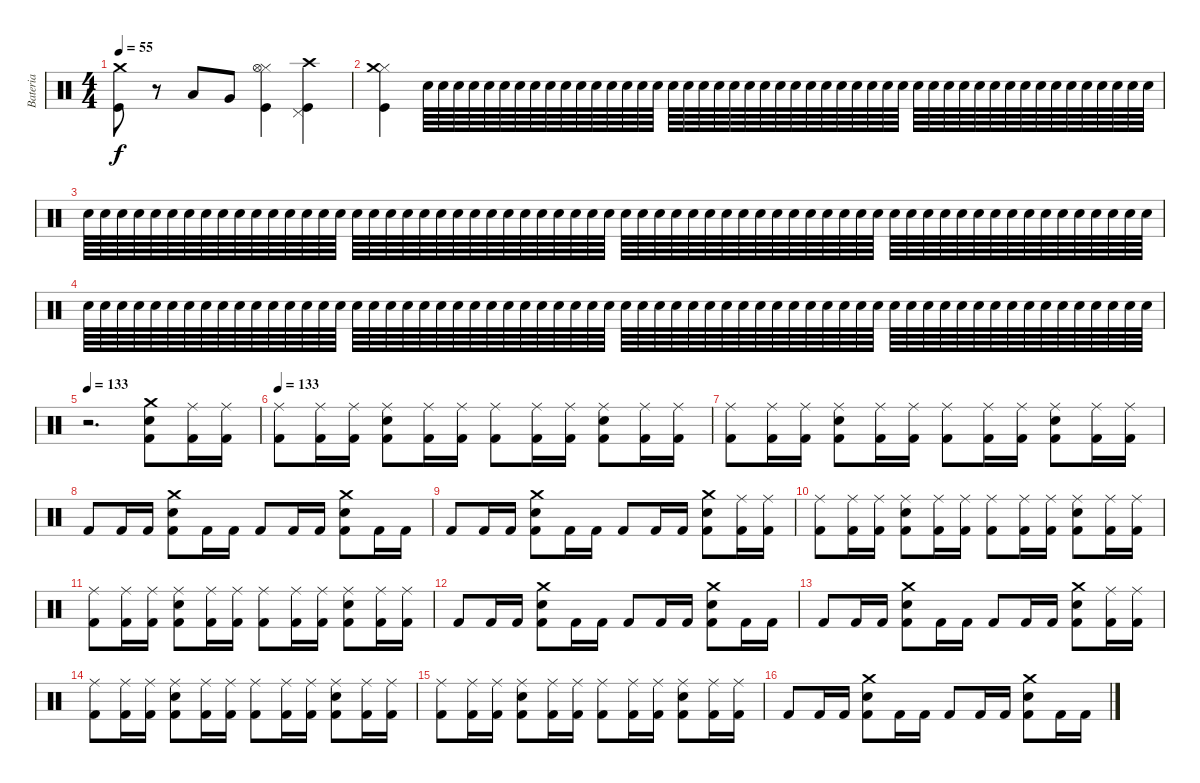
\track ("Bateria" "Bateria") {instrument percussion}
\staff {score}
\articulation defaults
\ts (4 4)
\tempo 55
\clef neutral
\ks c
("Crash medium (hit)" "Kick (hit)").8{dy f} r.8 "Low Floor Tom (hit)".8 "Very Low Tom (hit)".8 ("Hi-Hat (closed)" "Hi-Hat (open)" "Kick (hit)").4 ("Pedal Hi-Hat (hit)" "Crash high (hit)" "Kick (hit)").4 |
("Hi-Hat (closed)" "Crash medium (hit)" "Kick (hit)").4 "Snare (hit) 2".64{volume 0} "Snare (hit) 2".64 "Snare (hit) 2".64 "Snare (hit) 2".64 "Snare (hit) 2".64 "Snare (hit) 2".64 "Snare (hit) 2".64 "Snare (hit) 2".64 "Snare (hit) 2".64 "Snare (hit) 2".64 "Snare (hit) 2".64 "Snare (hit) 2".64 "Snare (hit) 2".64 "Snare (hit) 2".64 "Snare (hit) 2".64 "Snare (hit) 2".64 "Snare (hit) 2".64 "Snare (hit) 2".64 "Snare (hit) 2".64 "Snare (hit) 2".64 "Snare (hit) 2".64 "Snare (hit) 2".64 "Snare (hit) 2".64 "Snare (hit) 2".64 "Snare (hit) 2".64 "Snare (hit) 2".64 "Snare (hit) 2".64 "Snare (hit) 2".64 "Snare (hit) 2".64 "Snare (hit) 2".64 "Snare (hit) 2".64 "Snare (hit) 2".64 "Snare (hit) 2".64 "Snare (hit) 2".64 "Snare (hit) 2".64 "Snare (hit) 2".64 "Snare (hit) 2".64 "Snare (hit) 2".64 "Snare (hit) 2".64 "Snare (hit) 2".64 "Snare (hit) 2".64 "Snare (hit) 2".64 "Snare (hit) 2".64 "Snare (hit) 2".64 "Snare (hit) 2".64 "Snare (hit) 2".64 "Snare (hit) 2".64 "Snare (hit) 2".64 |
"Snare (hit) 2".64 "Snare (hit) 2".64 "Snare (hit) 2".64 "Snare (hit) 2".64 "Snare (hit) 2".64 "Snare (hit) 2".64 "Snare (hit) 2".64 "Snare (hit) 2".64 "Snare (hit) 2".64 "Snare (hit) 2".64 "Snare (hit) 2".64 "Snare (hit) 2".64 "Snare (hit) 2".64 "Snare (hit) 2".64 "Snare (hit) 2".64 "Snare (hit) 2".64 "Snare (hit) 2".64 "Snare (hit) 2".64 "Snare (hit) 2".64 "Snare (hit) 2".64 "Snare (hit) 2".64 "Snare (hit) 2".64 "Snare (hit) 2".64 "Snare (hit) 2".64 "Snare (hit) 2".64 "Snare (hit) 2".64 "Snare (hit) 2".64 "Snare (hit) 2".64 "Snare (hit) 2".64 "Snare (hit) 2".64 "Snare (hit) 2".64 "Snare (hit) 2".64 "Snare (hit) 2".64 "Snare (hit) 2".64 "Snare (hit) 2".64 "Snare (hit) 2".64 "Snare (hit) 2".64 "Snare (hit) 2".64 "Snare (hit) 2".64 "Snare (hit) 2".64 "Snare (hit) 2".64 "Snare (hit) 2".64 "Snare (hit) 2".64 "Snare (hit) 2".64 "Snare (hit) 2".64 "Snare (hit) 2".64 "Snare (hit) 2".64 "Snare (hit) 2".64 "Snare (hit) 2".64 "Snare (hit) 2".64 "Snare (hit) 2".64 "Snare (hit) 2".64 "Snare (hit) 2".64 "Snare (hit) 2".64 "Snare (hit) 2".64 "Snare (hit) 2".64 "Snare (hit) 2".64 "Snare (hit) 2".64 "Snare (hit) 2".64 "Snare (hit) 2".64 "Snare (hit) 2".64 "Snare (hit) 2".64 "Snare (hit) 2".64 "Snare (hit) 2".64 |
"Snare (hit) 2".64 "Snare (hit) 2".64 "Snare (hit) 2".64 "Snare (hit) 2".64 "Snare (hit) 2".64 "Snare (hit) 2".64 "Snare (hit) 2".64 "Snare (hit) 2".64 "Snare (hit) 2".64 "Snare (hit) 2".64 "Snare (hit) 2".64 "Snare (hit) 2".64 "Snare (hit) 2".64 "Snare (hit) 2".64 "Snare (hit) 2".64 "Snare (hit) 2".64 "Snare (hit) 2".64 "Snare (hit) 2".64 "Snare (hit) 2".64 "Snare (hit) 2".64 "Snare (hit) 2".64 "Snare (hit) 2".64 "Snare (hit) 2".64 "Snare (hit) 2".64 "Snare (hit) 2".64 "Snare (hit) 2".64 "Snare (hit) 2".64 "Snare (hit) 2".64 "Snare (hit) 2".64 "Snare (hit) 2".64 "Snare (hit) 2".64 "Snare (hit) 2".64 "Snare (hit) 2".64 "Snare (hit) 2".64 "Snare (hit) 2".64 "Snare (hit) 2".64 "Snare (hit) 2".64 "Snare (hit) 2".64 "Snare (hit) 2".64 "Snare (hit) 2".64 "Snare (hit) 2".64 "Snare (hit) 2".64 "Snare (hit) 2".64 "Snare (hit) 2".64 "Snare (hit) 2".64 "Snare (hit) 2".64 "Snare (hit) 2".64 "Snare (hit) 2".64 "Snare (hit) 2".64 "Snare (hit) 2".64 "Snare (hit) 2".64 "Snare (hit) 2".64 "Snare (hit) 2".64 "Snare (hit) 2".64 "Snare (hit) 2".64 "Snare (hit) 2".64 "Snare (hit) 2".64 "Snare (hit) 2".64 "Snare (hit) 2".64 "Snare (hit) 2".64 "Snare (hit) 2".64 "Snare (hit) 2".64 "Snare (hit) 2".64 "Snare (hit) 2".64 |
\tempo 133
r.2{d} ("Crash medium (hit)" "Snare (hit) 2" "Kick (hit) 2").8{volume 12} ("Ride (middle)" "Kick (hit) 2").16 ("Ride (middle)" "Kick (hit) 2").16 |
\tempo 133
("Ride (middle)" "Kick (hit) 2").8 ("Ride (middle)" "Kick (hit) 2").16 ("Ride (middle)" "Kick (hit) 2").16 ("Snare (hit) 2" "Ride (middle)" "Kick (hit) 2").8 ("Ride (middle)" "Kick (hit) 2").16 ("Ride (middle)" "Kick (hit) 2").16 ("Ride (middle)" "Kick (hit) 2").8 ("Ride (middle)" "Kick (hit) 2").16 ("Ride (middle)" "Kick (hit) 2").16 ("Snare (hit) 2" "Ride (middle)" "Kick (hit) 2").8 ("Ride (middle)" "Kick (hit) 2").16 ("Ride (middle)" "Kick (hit) 2").16 |
("Ride (middle)" "Kick (hit) 2").8 ("Ride (middle)" "Kick (hit) 2").16 ("Ride (middle)" "Kick (hit) 2").16 ("Snare (hit) 2" "Ride (middle)" "Kick (hit) 2").8 ("Ride (middle)" "Kick (hit) 2").16 ("Ride (middle)" "Kick (hit) 2").16 ("Ride (middle)" "Kick (hit) 2").8 ("Ride (middle)" "Kick (hit) 2").16 ("Ride (middle)" "Kick (hit) 2").16 ("Snare (hit) 2" "Ride (middle)" "Kick (hit) 2").8 ("Ride (middle)" "Kick (hit) 2").16 ("Ride (middle)" "Kick (hit) 2").16 |
"Kick (hit) 2".8 "Kick (hit) 2".16 "Kick (hit) 2".16 ("Crash medium (hit)" "Snare (hit) 2" "Kick (hit) 2").8 "Kick (hit) 2".16 "Kick (hit) 2".16 "Kick (hit) 2".8 "Kick (hit) 2".16 "Kick (hit) 2".16 ("Crash medium (hit)" "Snare (hit) 2" "Kick (hit) 2").8 "Kick (hit) 2".16 "Kick (hit) 2".16 |
"Kick (hit) 2".8 "Kick (hit) 2".16 "Kick (hit) 2".16 ("Crash medium (hit)" "Snare (hit) 2" "Kick (hit) 2").8 "Kick (hit) 2".16 "Kick (hit) 2".16 "Kick (hit) 2".8 "Kick (hit) 2".16 "Kick (hit) 2".16 ("Crash medium (hit)" "Snare (hit) 2" "Kick (hit) 2").8 ("Ride (middle)" "Kick (hit) 2").16 ("Ride (middle)" "Kick (hit) 2").16 |
("Ride (middle)" "Kick (hit) 2").8 ("Ride (middle)" "Kick (hit) 2").16 ("Ride (middle)" "Kick (hit) 2").16 ("Snare (hit) 2" "Ride (middle)" "Kick (hit) 2").8 ("Ride (middle)" "Kick (hit) 2").16 ("Ride (middle)" "Kick (hit) 2").16 ("Ride (middle)" "Kick (hit) 2").8 ("Ride (middle)" "Kick (hit) 2").16 ("Ride (middle)" "Kick (hit) 2").16 ("Snare (hit) 2" "Ride (middle)" "Kick (hit) 2").8 ("Ride (middle)" "Kick (hit) 2").16 ("Ride (middle)" "Kick (hit) 2").16 |
("Ride (middle)" "Kick (hit) 2").8 ("Ride (middle)" "Kick (hit) 2").16 ("Ride (middle)" "Kick (hit) 2").16 ("Snare (hit) 2" "Ride (middle)" "Kick (hit) 2").8 ("Ride (middle)" "Kick (hit) 2").16 ("Ride (middle)" "Kick (hit) 2").16 ("Ride (middle)" "Kick (hit) 2").8 ("Ride (middle)" "Kick (hit) 2").16 ("Ride (middle)" "Kick (hit) 2").16 ("Snare (hit) 2" "Ride (middle)" "Kick (hit) 2").8 ("Ride (middle)" "Kick (hit) 2").16 ("Ride (middle)" "Kick (hit) 2").16 |
"Kick (hit) 2".8 "Kick (hit) 2".16 "Kick (hit) 2".16 ("Crash medium (hit)" "Snare (hit) 2" "Kick (hit) 2").8 "Kick (hit) 2".16 "Kick (hit) 2".16 "Kick (hit) 2".8 "Kick (hit) 2".16 "Kick (hit) 2".16 ("Crash medium (hit)" "Snare (hit) 2" "Kick (hit) 2").8 "Kick (hit) 2".16 "Kick (hit) 2".16 |
"Kick (hit) 2".8 "Kick (hit) 2".16 "Kick (hit) 2".16 ("Crash medium (hit)" "Snare (hit) 2" "Kick (hit) 2").8 "Kick (hit) 2".16 "Kick (hit) 2".16 "Kick (hit) 2".8 "Kick (hit) 2".16 "Kick (hit) 2".16 ("Crash medium (hit)" "Snare (hit) 2" "Kick (hit) 2").8 ("Ride (middle)" "Kick (hit) 2").16 ("Ride (middle)" "Kick (hit) 2").16 |
("Ride (middle)" "Kick (hit) 2").8 ("Ride (middle)" "Kick (hit) 2").16 ("Ride (middle)" "Kick (hit) 2").16 ("Snare (hit) 2" "Ride (middle)" "Kick (hit) 2").8 ("Ride (middle)" "Kick (hit) 2").16 ("Ride (middle)" "Kick (hit) 2").16 ("Ride (middle)" "Kick (hit) 2").8 ("Ride (middle)" "Kick (hit) 2").16 ("Ride (middle)" "Kick (hit) 2").16 ("Snare (hit) 2" "Ride (middle)" "Kick (hit) 2").8 ("Ride (middle)" "Kick (hit) 2").16 ("Ride (middle)" "Kick (hit) 2").16 |
("Ride (middle)" "Kick (hit) 2").8 ("Ride (middle)" "Kick (hit) 2").16 ("Ride (middle)" "Kick (hit) 2").16 ("Snare (hit) 2" "Ride (middle)" "Kick (hit) 2").8 ("Ride (middle)" "Kick (hit) 2").16 ("Ride (middle)" "Kick (hit) 2").16 ("Ride (middle)" "Kick (hit) 2").8 ("Ride (middle)" "Kick (hit) 2").16 ("Ride (middle)" "Kick (hit) 2").16 ("Snare (hit) 2" "Ride (middle)" "Kick (hit) 2").8 ("Ride (middle)" "Kick (hit) 2").16 ("Ride (middle)" "Kick (hit) 2").16 |
"Kick (hit) 2".8 "Kick (hit) 2".16 "Kick (hit) 2".16 ("Crash medium (hit)" "Snare (hit) 2" "Kick (hit) 2").8 "Kick (hit) 2".16 "Kick (hit) 2".16 "Kick (hit) 2".8 "Kick (hit) 2".16 "Kick (hit) 2".16 ("Crash medium (hit)" "Snare (hit) 2" "Kick (hit) 2").8 "Kick (hit) 2".16 "Kick (hit) 2".16
